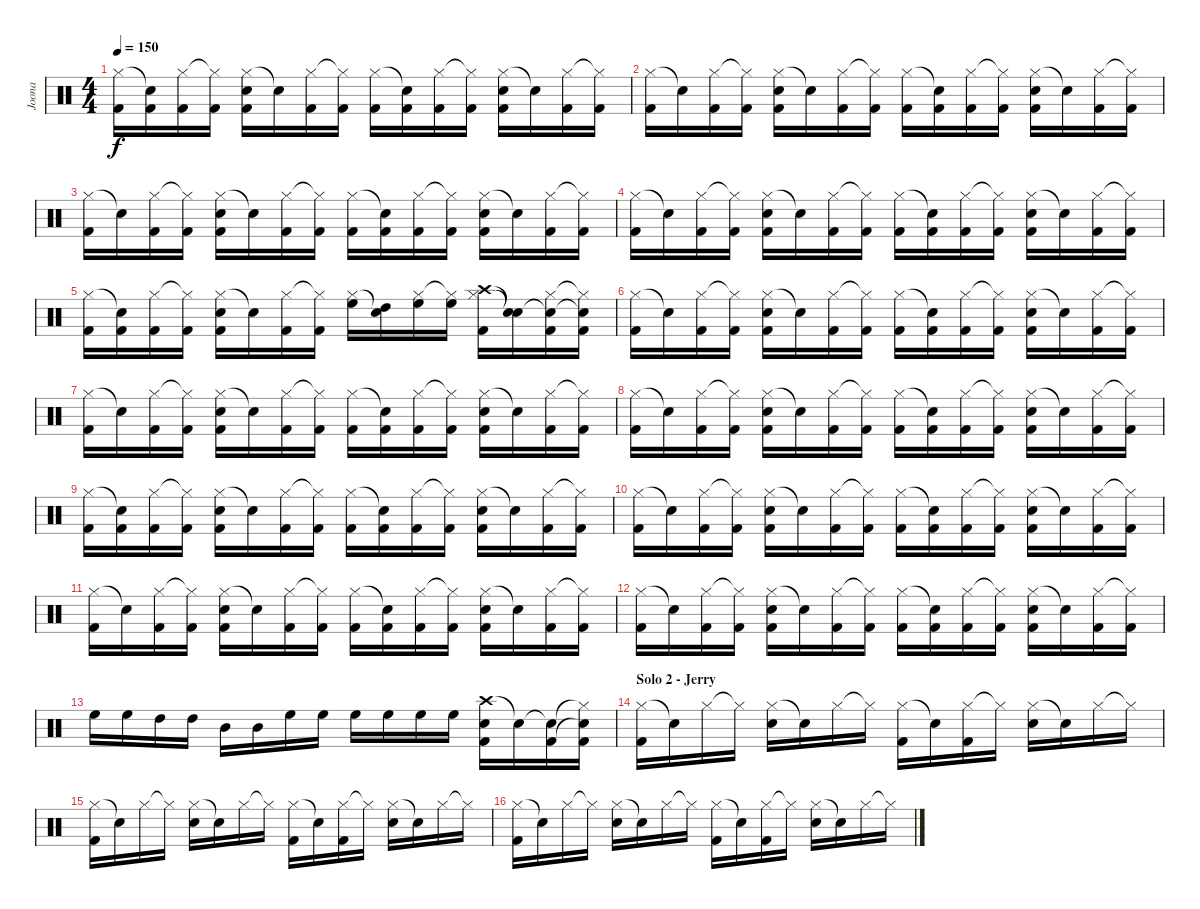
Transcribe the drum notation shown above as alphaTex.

\track ("Joona" "Joona") {instrument percussion}
\staff {score}
\articulation defaults
\ts (4 4)
\tempo 150
\clef neutral
\ks c
("Hi-Hat (closed)" "Kick (hit) 2").16{dy f} ("Snare (hit)"{t} "Kick (hit) 2").16 ("Hi-Hat (closed)" "Kick (hit) 2").16 ("Hi-Hat (closed)"{t} "Kick (hit) 2").16 ("Hi-Hat (closed)" "Kick (hit) 2" "Snare (hit) 2").16 "Snare (hit)"{t}.16 ("Hi-Hat (closed)" "Kick (hit) 2").16 ("Hi-Hat (closed)"{t} "Kick (hit) 2").16 ("Hi-Hat (closed)" "Kick (hit) 2").16 ("Snare (hit)"{t} "Kick (hit) 2").16 ("Hi-Hat (closed)" "Kick (hit) 2").16 ("Hi-Hat (closed)"{t} "Kick (hit) 2").16 ("Hi-Hat (closed)" "Kick (hit) 2" "Snare (hit) 2").16 "Snare (hit)"{t}.16 ("Hi-Hat (closed)" "Kick (hit) 2").16 ("Hi-Hat (closed)"{t} "Kick (hit) 2").16 |
("Hi-Hat (closed)" "Kick (hit) 2").16 "Snare (hit)"{t}.16 ("Hi-Hat (closed)" "Kick (hit) 2").16 ("Hi-Hat (closed)"{t} "Kick (hit) 2").16 ("Hi-Hat (closed)" "Kick (hit) 2" "Snare (hit) 2").16 "Snare (hit)"{t}.16 ("Hi-Hat (closed)" "Kick (hit) 2").16 ("Hi-Hat (closed)"{t} "Kick (hit) 2").16 ("Hi-Hat (closed)" "Kick (hit) 2").16 ("Snare (hit)"{t} "Kick (hit) 2").16 ("Hi-Hat (closed)" "Kick (hit) 2").16 ("Hi-Hat (closed)"{t} "Kick (hit) 2").16 ("Hi-Hat (closed)" "Kick (hit) 2" "Snare (hit) 2").16 "Snare (hit)"{t}.16 ("Hi-Hat (closed)" "Kick (hit) 2").16 ("Hi-Hat (closed)"{t} "Kick (hit) 2").16 |
("Hi-Hat (closed)" "Kick (hit) 2").16 "Snare (hit)"{t}.16 ("Hi-Hat (closed)" "Kick (hit) 2").16 ("Hi-Hat (closed)"{t} "Kick (hit) 2").16 ("Hi-Hat (closed)" "Kick (hit) 2" "Snare (hit) 2").16 "Snare (hit)"{t}.16 ("Hi-Hat (closed)" "Kick (hit) 2").16 ("Hi-Hat (closed)"{t} "Kick (hit) 2").16 ("Hi-Hat (closed)" "Kick (hit) 2").16 ("Snare (hit)"{t} "Kick (hit) 2").16 ("Hi-Hat (closed)" "Kick (hit) 2").16 ("Hi-Hat (closed)"{t} "Kick (hit) 2").16 ("Hi-Hat (closed)" "Kick (hit) 2" "Snare (hit) 2").16 "Snare (hit)"{t}.16 ("Hi-Hat (closed)" "Kick (hit) 2").16 ("Hi-Hat (closed)"{t} "Kick (hit) 2").16 |
("Hi-Hat (closed)" "Kick (hit) 2").16 "Snare (hit)"{t}.16 ("Hi-Hat (closed)" "Kick (hit) 2").16 ("Hi-Hat (closed)"{t} "Kick (hit) 2").16 ("Hi-Hat (closed)" "Kick (hit) 2" "Snare (hit) 2").16 "Snare (hit)"{t}.16 ("Hi-Hat (closed)" "Kick (hit) 2").16 ("Hi-Hat (closed)"{t} "Kick (hit) 2").16 ("Hi-Hat (closed)" "Kick (hit) 2").16 ("Snare (hit)"{t} "Kick (hit) 2").16 ("Hi-Hat (closed)" "Kick (hit) 2").16 ("Hi-Hat (closed)"{t} "Kick (hit) 2").16 ("Hi-Hat (closed)" "Kick (hit) 2" "Snare (hit) 2").16 "Snare (hit)"{t}.16 ("Hi-Hat (closed)" "Kick (hit) 2").16 ("Hi-Hat (closed)"{t} "Kick (hit) 2").16 |
("Hi-Hat (closed)" "Kick (hit) 2").16 ("Snare (hit)"{t} "Kick (hit) 2").16 ("Hi-Hat (closed)" "Kick (hit) 2").16 ("Hi-Hat (closed)"{t} "Kick (hit) 2").16 ("Hi-Hat (closed)" "Kick (hit) 2" "Snare (hit) 2").16 "Snare (hit)"{t}.16 ("Hi-Hat (closed)" "Kick (hit) 2").16 ("Hi-Hat (closed)"{t} "Kick (hit) 2").16 ("Hi-Hat (closed)" "High Floor Tom (hit)").16 ("Snare (hit)"{t} "High Tom (hit)").16 ("Hi-Hat (closed)" "High Floor Tom (hit)").16 ("Hi-Hat (closed)"{t} "High Floor Tom (hit)").16 ("Hi-Hat (closed)" "Crash high (hit)" "Kick (hit) 2").16 ("Snare (hit)"{t} "Snare (hit)"{t}).16 ("Hi-Hat (closed)" "Snare (hit)"{t} "Kick (hit) 2").16 ("Hi-Hat (closed)"{t} "Snare (hit)"{t} "Kick (hit) 2").16 |
("Hi-Hat (closed)" "Kick (hit) 2").16 "Snare (hit)"{t}.16 ("Hi-Hat (closed)" "Kick (hit) 2").16 ("Hi-Hat (closed)"{t} "Kick (hit) 2").16 ("Hi-Hat (closed)" "Kick (hit) 2" "Snare (hit) 2").16 "Snare (hit)"{t}.16 ("Hi-Hat (closed)" "Kick (hit) 2").16 ("Hi-Hat (closed)"{t} "Kick (hit) 2").16 ("Hi-Hat (closed)" "Kick (hit) 2").16 ("Snare (hit)"{t} "Kick (hit) 2").16 ("Hi-Hat (closed)" "Kick (hit) 2").16 ("Hi-Hat (closed)"{t} "Kick (hit) 2").16 ("Hi-Hat (closed)" "Kick (hit) 2" "Snare (hit) 2").16 "Snare (hit)"{t}.16 ("Hi-Hat (closed)" "Kick (hit) 2").16 ("Hi-Hat (closed)"{t} "Kick (hit) 2").16 |
("Hi-Hat (closed)" "Kick (hit) 2").16 "Snare (hit)"{t}.16 ("Hi-Hat (closed)" "Kick (hit) 2").16 ("Hi-Hat (closed)"{t} "Kick (hit) 2").16 ("Hi-Hat (closed)" "Kick (hit) 2" "Snare (hit) 2").16 "Snare (hit)"{t}.16 ("Hi-Hat (closed)" "Kick (hit) 2").16 ("Hi-Hat (closed)"{t} "Kick (hit) 2").16 ("Hi-Hat (closed)" "Kick (hit) 2").16 ("Snare (hit)"{t} "Kick (hit) 2").16 ("Hi-Hat (closed)" "Kick (hit) 2").16 ("Hi-Hat (closed)"{t} "Kick (hit) 2").16 ("Hi-Hat (closed)" "Kick (hit) 2" "Snare (hit) 2").16 "Snare (hit)"{t}.16 ("Hi-Hat (closed)" "Kick (hit) 2").16 ("Hi-Hat (closed)"{t} "Kick (hit) 2").16 |
("Hi-Hat (closed)" "Kick (hit) 2").16 "Snare (hit)"{t}.16 ("Hi-Hat (closed)" "Kick (hit) 2").16 ("Hi-Hat (closed)"{t} "Kick (hit) 2").16 ("Hi-Hat (closed)" "Kick (hit) 2" "Snare (hit) 2").16 "Snare (hit)"{t}.16 ("Hi-Hat (closed)" "Kick (hit) 2").16 ("Hi-Hat (closed)"{t} "Kick (hit) 2").16 ("Hi-Hat (closed)" "Kick (hit) 2").16 ("Snare (hit)"{t} "Kick (hit) 2").16 ("Hi-Hat (closed)" "Kick (hit) 2").16 ("Hi-Hat (closed)"{t} "Kick (hit) 2").16 ("Hi-Hat (closed)" "Kick (hit) 2" "Snare (hit) 2").16 "Snare (hit)"{t}.16 ("Hi-Hat (closed)" "Kick (hit) 2").16 ("Hi-Hat (closed)"{t} "Kick (hit) 2").16 |
("Hi-Hat (closed)" "Kick (hit) 2").16 ("Snare (hit)"{t} "Kick (hit) 2").16 ("Hi-Hat (closed)" "Kick (hit) 2").16 ("Hi-Hat (closed)"{t} "Kick (hit) 2").16 ("Hi-Hat (closed)" "Kick (hit) 2" "Snare (hit) 2").16 "Snare (hit)"{t}.16 ("Hi-Hat (closed)" "Kick (hit) 2").16 ("Hi-Hat (closed)"{t} "Kick (hit) 2").16 ("Hi-Hat (closed)" "Kick (hit) 2").16 ("Snare (hit)"{t} "Kick (hit) 2").16 ("Hi-Hat (closed)" "Kick (hit) 2").16 ("Hi-Hat (closed)"{t} "Kick (hit) 2").16 ("Hi-Hat (closed)" "Kick (hit) 2" "Snare (hit) 2").16 "Snare (hit)"{t}.16 ("Hi-Hat (closed)" "Kick (hit) 2").16 ("Hi-Hat (closed)"{t} "Kick (hit) 2").16 |
("Hi-Hat (closed)" "Kick (hit) 2").16 "Snare (hit)"{t}.16 ("Hi-Hat (closed)" "Kick (hit) 2").16 ("Hi-Hat (closed)"{t} "Kick (hit) 2").16 ("Hi-Hat (closed)" "Kick (hit) 2" "Snare (hit) 2").16 "Snare (hit)"{t}.16 ("Hi-Hat (closed)" "Kick (hit) 2").16 ("Hi-Hat (closed)"{t} "Kick (hit) 2").16 ("Hi-Hat (closed)" "Kick (hit) 2").16 ("Snare (hit)"{t} "Kick (hit) 2").16 ("Hi-Hat (closed)" "Kick (hit) 2").16 ("Hi-Hat (closed)"{t} "Kick (hit) 2").16 ("Hi-Hat (closed)" "Kick (hit) 2" "Snare (hit) 2").16 "Snare (hit)"{t}.16 ("Hi-Hat (closed)" "Kick (hit) 2").16 ("Hi-Hat (closed)"{t} "Kick (hit) 2").16 |
("Hi-Hat (closed)" "Kick (hit) 2").16 "Snare (hit)"{t}.16 ("Hi-Hat (closed)" "Kick (hit) 2").16 ("Hi-Hat (closed)"{t} "Kick (hit) 2").16 ("Hi-Hat (closed)" "Kick (hit) 2" "Snare (hit) 2").16 "Snare (hit)"{t}.16 ("Hi-Hat (closed)" "Kick (hit) 2").16 ("Hi-Hat (closed)"{t} "Kick (hit) 2").16 ("Hi-Hat (closed)" "Kick (hit) 2").16 ("Snare (hit)"{t} "Kick (hit) 2").16 ("Hi-Hat (closed)" "Kick (hit) 2").16 ("Hi-Hat (closed)"{t} "Kick (hit) 2").16 ("Hi-Hat (closed)" "Kick (hit) 2" "Snare (hit) 2").16 "Snare (hit)"{t}.16 ("Hi-Hat (closed)" "Kick (hit) 2").16 ("Hi-Hat (closed)"{t} "Kick (hit) 2").16 |
("Hi-Hat (closed)" "Kick (hit) 2").16 "Snare (hit)"{t}.16 ("Hi-Hat (closed)" "Kick (hit) 2").16 ("Hi-Hat (closed)"{t} "Kick (hit) 2").16 ("Hi-Hat (closed)" "Kick (hit) 2" "Snare (hit) 2").16 "Snare (hit)"{t}.16 ("Hi-Hat (closed)" "Kick (hit) 2").16 ("Hi-Hat (closed)"{t} "Kick (hit) 2").16 ("Hi-Hat (closed)" "Kick (hit) 2").16 ("Snare (hit)"{t} "Kick (hit) 2").16 ("Hi-Hat (closed)" "Kick (hit) 2").16 ("Hi-Hat (closed)"{t} "Kick (hit) 2").16 ("Hi-Hat (closed)" "Kick (hit) 2" "Snare (hit) 2").16 "Snare (hit)"{t}.16 ("Hi-Hat (closed)" "Kick (hit) 2").16 ("Hi-Hat (closed)"{t} "Kick (hit) 2").16 |
"High Floor Tom (hit)".16 "High Floor Tom (hit)".16 "High Tom (hit)".16 "High Tom (hit)".16 "Mid Tom (hit)".16 "Mid Tom (hit)".16 "High Floor Tom (hit)".16 "High Floor Tom (hit)".16 "High Floor Tom (hit)".16 "High Floor Tom (hit)".16 "High Floor Tom (hit)".16 "High Floor Tom (hit)".16 ("Crash high (hit)" "Kick (hit) 2" "Snare (hit) 2").16 "Snare (hit)"{t}.16 ("Snare (hit)"{t} "Kick (hit) 2").16 ("Hi-Hat (closed)"{t} "Snare (hit)"{t} "Kick (hit) 2").16 |
\section ("" "Solo 2 - Jerry")
("Hi-Hat (closed)" "Kick (hit) 2").16 "Snare (hit)"{t}.16 "Hi-Hat (closed)".16 "Hi-Hat (closed)"{t}.16 ("Hi-Hat (closed)" "Snare (hit) 2").16 "Snare (hit)"{t}.16 "Hi-Hat (closed)".16 "Hi-Hat (closed)"{t}.16 ("Hi-Hat (closed)" "Kick (hit) 2").16 "Snare (hit)"{t}.16 ("Hi-Hat (closed)" "Kick (hit) 2").16 "Hi-Hat (closed)"{t}.16 ("Hi-Hat (closed)" "Snare (hit) 2").16 "Snare (hit)"{t}.16 "Hi-Hat (closed)".16 "Hi-Hat (closed)"{t}.16 |
("Hi-Hat (closed)" "Kick (hit) 2").16 "Snare (hit)"{t}.16 "Hi-Hat (closed)".16 "Hi-Hat (closed)"{t}.16 ("Hi-Hat (closed)" "Snare (hit) 2").16 "Snare (hit)"{t}.16 "Hi-Hat (closed)".16 "Hi-Hat (closed)"{t}.16 ("Hi-Hat (closed)" "Kick (hit) 2").16 "Snare (hit)"{t}.16 ("Hi-Hat (closed)" "Kick (hit) 2").16 "Hi-Hat (closed)"{t}.16 ("Hi-Hat (closed)" "Snare (hit) 2").16 "Snare (hit)"{t}.16 "Hi-Hat (closed)".16 "Hi-Hat (closed)"{t}.16 |
("Hi-Hat (closed)" "Kick (hit) 2").16 "Snare (hit)"{t}.16 "Hi-Hat (closed)".16 "Hi-Hat (closed)"{t}.16 ("Hi-Hat (closed)" "Snare (hit) 2").16 "Snare (hit)"{t}.16 "Hi-Hat (closed)".16 "Hi-Hat (closed)"{t}.16 ("Hi-Hat (closed)" "Kick (hit) 2").16 "Snare (hit)"{t}.16 ("Hi-Hat (closed)" "Kick (hit) 2").16 "Hi-Hat (closed)"{t}.16 ("Hi-Hat (closed)" "Snare (hit) 2").16 "Snare (hit)"{t}.16 "Hi-Hat (closed)".16 "Hi-Hat (closed)"{t}.16
